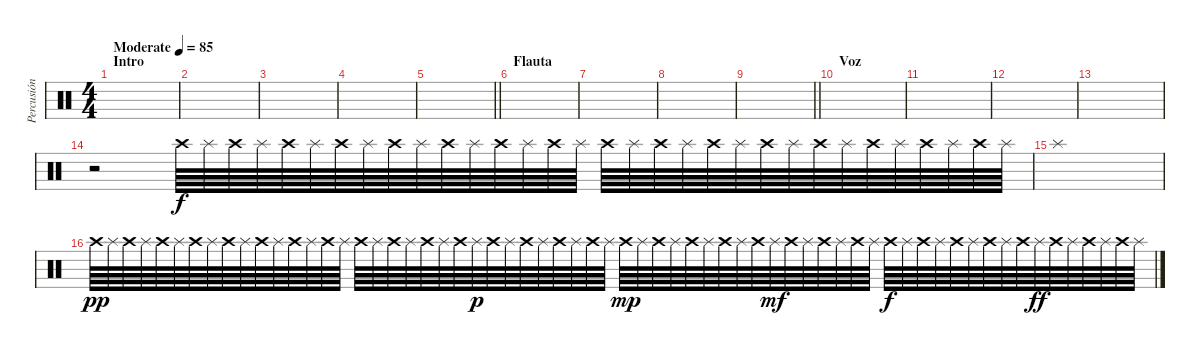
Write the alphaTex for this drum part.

\track ("Percusión" "Percusión") {instrument percussion}
\staff {score}
\articulation defaults
\ts (4 4)
\section ("" "Intro")
\tempo (85 "Moderate")
\clef neutral
\ks c
|
|
|
|
\barLineRight lightlight
|
\section ("" "Flauta")
|
|
|
\barLineRight lightlight
|
\section ("" "Voz")
|
|
|
|
r.2 "Crash high (hit)".64 "Splash (hit)".64 "Crash high (hit)".64 "Splash (hit)".64 "Crash high (hit)".64 "Splash (hit)".64 "Crash high (hit)".64 "Splash (hit)".64 "Crash high (hit)".64 "Splash (hit)".64 "Crash high (hit)".64 "Splash (hit)".64 "Crash high (hit)".64 "Splash (hit)".64 "Crash high (hit)".64 "Splash (hit)".64 "Crash high (hit)".64 "Splash (hit)".64 "Crash high (hit)".64 "Splash (hit)".64 "Crash high (hit)".64 "Splash (hit)".64 "Crash high (hit)".64 "Splash (hit)".64 "Crash high (hit)".64 "Splash (hit)".64 "Crash high (hit)".64 "Splash (hit)".64 "Crash high (hit)".64 "Splash (hit)".64 "Crash high (hit)".64 "Splash (hit)".64 |
"Splash (hit)".1{dy f} |
"Crash high (hit)".64{dy pp} "Splash (hit)".64 "Crash high (hit)".64 "Splash (hit)".64 "Crash high (hit)".64 "Splash (hit)".64 "Crash high (hit)".64 "Splash (hit)".64 "Crash high (hit)".64 "Splash (hit)".64 "Crash high (hit)".64 "Splash (hit)".64 "Crash high (hit)".64 "Splash (hit)".64 "Crash high (hit)".64 "Splash (hit)".64 "Crash high (hit)".64 "Splash (hit)".64 "Crash high (hit)".64 "Splash (hit)".64 "Crash high (hit)".64 "Splash (hit)".64 "Crash high (hit)".64 "Splash (hit)".64{dy p} "Crash high (hit)".64 "Splash (hit)".64 "Crash high (hit)".64 "Splash (hit)".64 "Crash high (hit)".64 "Splash (hit)".64 "Crash high (hit)".64 "Splash (hit)".64 "Crash high (hit)".64{dy mp} "Splash (hit)".64 "Crash high (hit)".64 "Splash (hit)".64 "Crash high (hit)".64 "Splash (hit)".64 "Crash high (hit)".64 "Splash (hit)".64 "Crash high (hit)".64 "Splash (hit)".64{dy mf} "Crash high (hit)".64 "Splash (hit)".64 "Crash high (hit)".64 "Splash (hit)".64 "Crash high (hit)".64 "Splash (hit)".64 "Crash high (hit)".64{dy f} "Splash (hit)".64 "Crash high (hit)".64 "Splash (hit)".64 "Crash high (hit)".64 "Splash (hit)".64 "Crash high (hit)".64 "Splash (hit)".64 "Crash high (hit)".64 "Splash (hit)".64{dy ff} "Crash high (hit)".64 "Splash (hit)".64 "Crash high (hit)".64 "Splash (hit)".64 "Crash high (hit)".64 "Splash (hit)".64
